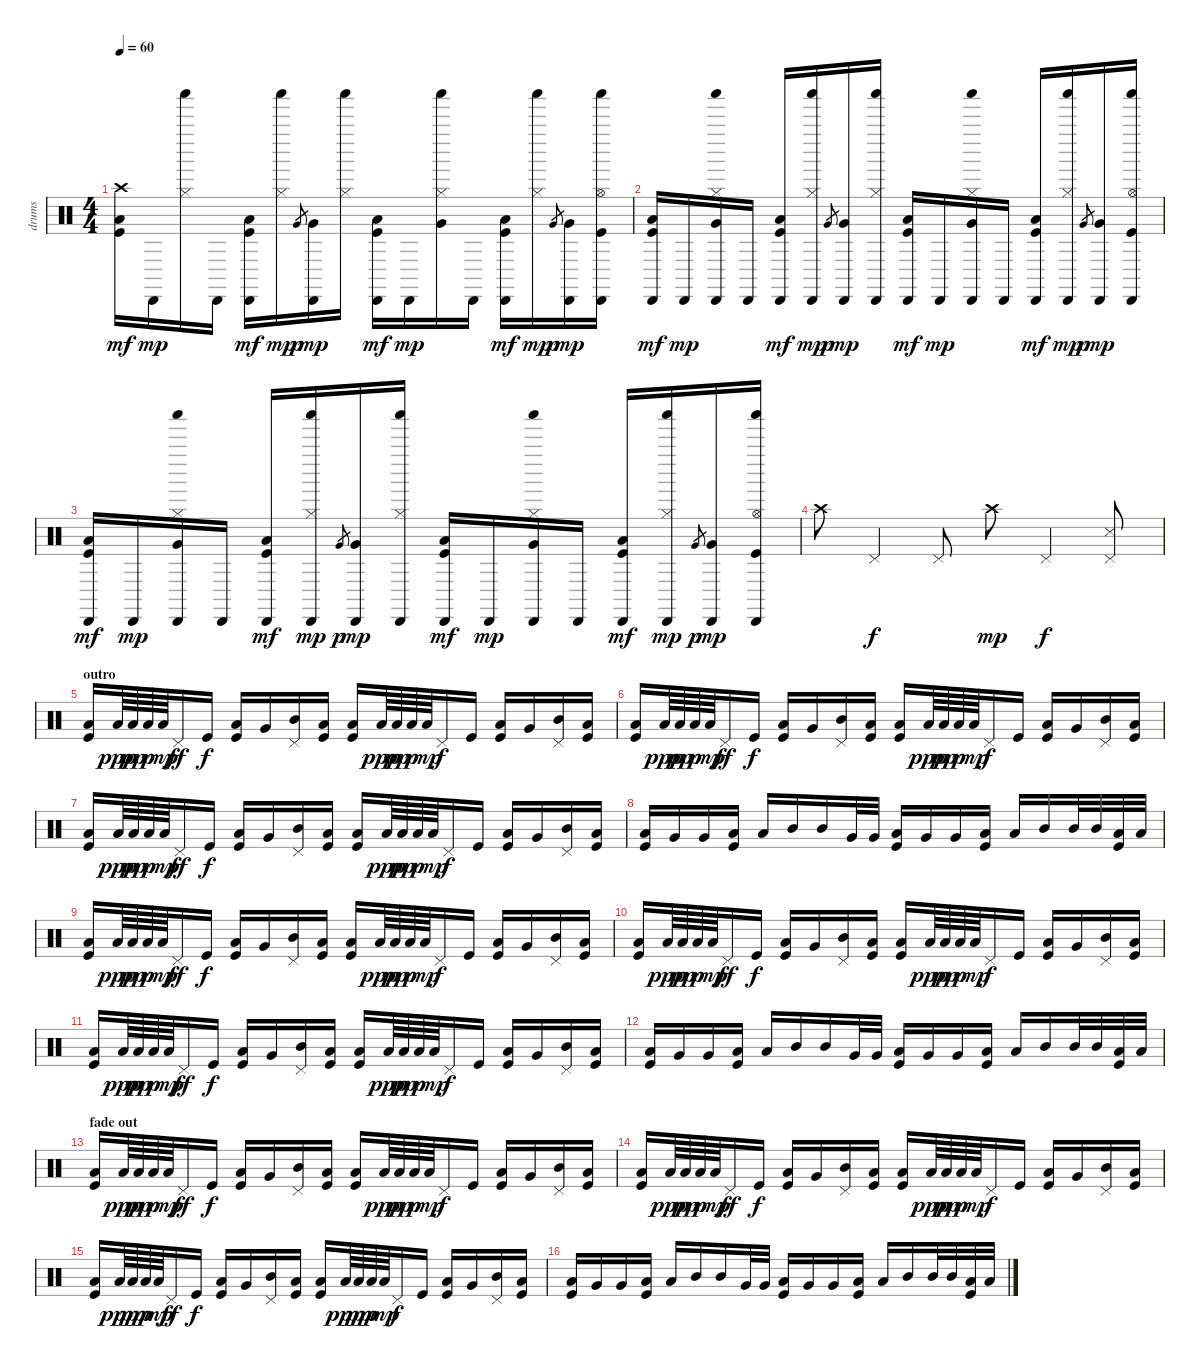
\track ("drums" "drums") {instrument percussion}
\staff {score}
\articulation defaults
\ts (4 4)
\tempo 60
\clef neutral
\ks c
("Crash high (hit)" "Low Floor Tom (hit)" "Kick (hit)").16{dy mf} "Cabasa (hit)".16{dy mp} ("Shaker (hit)" "Hi-Hat (closed)").16 "Cabasa (hit)".16 ("Cabasa (hit)" "Low Floor Tom (hit)" "Kick (hit)").16{dy mf} ("Shaker (hit)" "Hi-Hat (closed)").16{dy mp} "Very Low Tom (hit)".8{gr dy p} ("Cabasa (hit)" "Very Low Tom (hit)").16{dy mp} ("Shaker (hit)" "Hi-Hat (closed)").16 ("Cabasa (hit)" "Low Floor Tom (hit)" "Kick (hit)").16{dy mf} "Cabasa (hit)".16{dy mp} ("Shaker (hit)" "Very Low Tom (hit)" "Hi-Hat (closed)").16 "Cabasa (hit)".16 ("Cabasa (hit)" "Low Floor Tom (hit)" "Kick (hit)").16{dy mf} ("Shaker (hit)" "Hi-Hat (closed)").16{dy mp} "Very Low Tom (hit)".8{gr dy p} ("Cabasa (hit)" "Very Low Tom (hit)").16{dy mp} ("Cabasa (hit)" "Shaker (hit)" "Hi-Hat (open)" "Kick (hit)").16 |
("Cabasa (hit)" "Low Floor Tom (hit)" "Kick (hit)").16{dy mf} "Cabasa (hit)".16{dy mp} ("Cabasa (hit)" "Shaker (hit)" "Very Low Tom (hit)" "Hi-Hat (closed)").16 "Cabasa (hit)".16 ("Cabasa (hit)" "Low Floor Tom (hit)" "Kick (hit)").16{dy mf} ("Cabasa (hit)" "Shaker (hit)" "Hi-Hat (closed)").16{dy mp} "Very Low Tom (hit)".8{gr dy p} ("Cabasa (hit)" "Very Low Tom (hit)").16{dy mp} ("Cabasa (hit)" "Shaker (hit)" "Hi-Hat (closed)").16 ("Cabasa (hit)" "Low Floor Tom (hit)" "Kick (hit)").16{dy mf} "Cabasa (hit)".16{dy mp} ("Cabasa (hit)" "Shaker (hit)" "Very Low Tom (hit)" "Hi-Hat (closed)").16 "Cabasa (hit)".16 ("Cabasa (hit)" "Low Floor Tom (hit)" "Kick (hit)").16{dy mf} ("Cabasa (hit)" "Shaker (hit)" "Hi-Hat (closed)").16{dy mp} "Very Low Tom (hit)".8{gr dy p} ("Cabasa (hit)" "Very Low Tom (hit)").16{dy mp} ("Cabasa (hit)" "Shaker (hit)" "Hi-Hat (open)" "Kick (hit)").16 |
("Cabasa (hit)" "Low Floor Tom (hit)" "Kick (hit)").16{dy mf} "Cabasa (hit)".16{dy mp} ("Cabasa (hit)" "Shaker (hit)" "Very Low Tom (hit)" "Hi-Hat (closed)").16 "Cabasa (hit)".16 ("Cabasa (hit)" "Low Floor Tom (hit)" "Kick (hit)").16{dy mf} ("Cabasa (hit)" "Shaker (hit)" "Hi-Hat (closed)").16{dy mp} "Very Low Tom (hit)".8{gr dy p} ("Cabasa (hit)" "Very Low Tom (hit)").16{dy mp} ("Cabasa (hit)" "Shaker (hit)" "Hi-Hat (closed)").16 ("Cabasa (hit)" "Low Floor Tom (hit)" "Kick (hit)").16{dy mf} "Cabasa (hit)".16{dy mp} ("Cabasa (hit)" "Shaker (hit)" "Very Low Tom (hit)" "Hi-Hat (closed)").16 "Cabasa (hit)".16 ("Cabasa (hit)" "Low Floor Tom (hit)" "Kick (hit)").16{dy mf} ("Cabasa (hit)" "Shaker (hit)" "Hi-Hat (closed)").16{dy mp} "Very Low Tom (hit)".8{gr dy p} ("Cabasa (hit)" "Very Low Tom (hit)").16{dy mp} ("Cabasa (hit)" "Shaker (hit)" "Hi-Hat (open)" "Kick (hit)").16 |
"Crash high (hit)".8 "Pedal Hi-Hat (hit)".4{dy f} "Pedal Hi-Hat (hit)".8 "Crash high (hit)".8{dy mp} "Pedal Hi-Hat (hit)".4{dy f} ("Snare (side stick) 3" "Pedal Hi-Hat (hit)").8 |
\section ("" "outro")
("Low Floor Tom (hit)" "Kick (hit)").16 "Low Floor Tom (hit)".64{dy ppp} "Low Floor Tom (hit)".64{dy pp} "Low Floor Tom (hit)".64{dy p} "Low Floor Tom (hit)".64{dy mp} "Pedal Hi-Hat (hit)".16{dy ff} "Kick (hit)".16{dy f} ("Low Floor Tom (hit)" "Kick (hit)").16 "Very Low Tom (hit)".16 ("Mid Tom (hit)" "Pedal Hi-Hat (hit)").16 ("Low Floor Tom (hit)" "Kick (hit)").16 ("Low Floor Tom (hit)" "Kick (hit)").16 "Low Floor Tom (hit)".64{dy ppp} "Low Floor Tom (hit)".64{dy pp} "Low Floor Tom (hit)".64{dy p} "Low Floor Tom (hit)".64{dy mp} "Pedal Hi-Hat (hit)".16{dy f} "Kick (hit)".16 ("Low Floor Tom (hit)" "Kick (hit)").16 "Very Low Tom (hit)".16 ("Mid Tom (hit)" "Pedal Hi-Hat (hit)").16 ("Low Floor Tom (hit)" "Kick (hit)").16 |
("Low Floor Tom (hit)" "Kick (hit)").16 "Low Floor Tom (hit)".64{dy ppp} "Low Floor Tom (hit)".64{dy pp} "Low Floor Tom (hit)".64{dy p} "Low Floor Tom (hit)".64{dy mp} "Pedal Hi-Hat (hit)".16{dy ff} "Kick (hit)".16{dy f} ("Low Floor Tom (hit)" "Kick (hit)").16 "Very Low Tom (hit)".16 ("Mid Tom (hit)" "Pedal Hi-Hat (hit)").16 ("Low Floor Tom (hit)" "Kick (hit)").16 ("Low Floor Tom (hit)" "Kick (hit)").16 "Low Floor Tom (hit)".64{dy ppp} "Low Floor Tom (hit)".64{dy pp} "Low Floor Tom (hit)".64{dy p} "Low Floor Tom (hit)".64{dy mp} "Pedal Hi-Hat (hit)".16{dy f} "Kick (hit)".16 ("Low Floor Tom (hit)" "Kick (hit)").16 "Very Low Tom (hit)".16 ("Mid Tom (hit)" "Pedal Hi-Hat (hit)").16 ("Low Floor Tom (hit)" "Kick (hit)").16 |
("Low Floor Tom (hit)" "Kick (hit)").16 "Low Floor Tom (hit)".64{dy ppp} "Low Floor Tom (hit)".64{dy pp} "Low Floor Tom (hit)".64{dy p} "Low Floor Tom (hit)".64{dy mp} "Pedal Hi-Hat (hit)".16{dy ff} "Kick (hit)".16{dy f} ("Low Floor Tom (hit)" "Kick (hit)").16 "Very Low Tom (hit)".16 ("Mid Tom (hit)" "Pedal Hi-Hat (hit)").16 ("Low Floor Tom (hit)" "Kick (hit)").16 ("Low Floor Tom (hit)" "Kick (hit)").16 "Low Floor Tom (hit)".64{dy ppp} "Low Floor Tom (hit)".64{dy pp} "Low Floor Tom (hit)".64{dy p} "Low Floor Tom (hit)".64{dy mp} "Pedal Hi-Hat (hit)".16{dy f} "Kick (hit)".16 ("Low Floor Tom (hit)" "Kick (hit)").16 "Very Low Tom (hit)".16 ("Mid Tom (hit)" "Pedal Hi-Hat (hit)").16 ("Low Floor Tom (hit)" "Kick (hit)").16 |
("Low Floor Tom (hit)" "Kick (hit)").16 "Very Low Tom (hit)".16 "Very Low Tom (hit)".16 ("Low Floor Tom (hit)" "Kick (hit)").16 "Low Floor Tom (hit)".16 "Mid Tom (hit)".16 "Mid Tom (hit)".16 "Very Low Tom (hit)".32 "Very Low Tom (hit)".32 ("Low Floor Tom (hit)" "Kick (hit)").16 "Very Low Tom (hit)".16 "Very Low Tom (hit)".16 ("Low Floor Tom (hit)" "Kick (hit)").16 "Low Floor Tom (hit)".16 "Mid Tom (hit)".16 "Mid Tom (hit)".32 "Mid Tom (hit)".32 ("Low Floor Tom (hit)" "Kick (hit)").32 "Low Floor Tom (hit)".32 |
("Low Floor Tom (hit)" "Kick (hit)").16 "Low Floor Tom (hit)".64{dy ppp} "Low Floor Tom (hit)".64{dy pp} "Low Floor Tom (hit)".64{dy p} "Low Floor Tom (hit)".64{dy mp} "Pedal Hi-Hat (hit)".16{dy ff} "Kick (hit)".16{dy f} ("Low Floor Tom (hit)" "Kick (hit)").16 "Very Low Tom (hit)".16 ("Mid Tom (hit)" "Pedal Hi-Hat (hit)").16 ("Low Floor Tom (hit)" "Kick (hit)").16 ("Low Floor Tom (hit)" "Kick (hit)").16 "Low Floor Tom (hit)".64{dy ppp} "Low Floor Tom (hit)".64{dy pp} "Low Floor Tom (hit)".64{dy p} "Low Floor Tom (hit)".64{dy mp} "Pedal Hi-Hat (hit)".16{dy f} "Kick (hit)".16 ("Low Floor Tom (hit)" "Kick (hit)").16 "Very Low Tom (hit)".16 ("Mid Tom (hit)" "Pedal Hi-Hat (hit)").16 ("Low Floor Tom (hit)" "Kick (hit)").16 |
("Low Floor Tom (hit)" "Kick (hit)").16 "Low Floor Tom (hit)".64{dy ppp} "Low Floor Tom (hit)".64{dy pp} "Low Floor Tom (hit)".64{dy p} "Low Floor Tom (hit)".64{dy mp} "Pedal Hi-Hat (hit)".16{dy ff} "Kick (hit)".16{dy f} ("Low Floor Tom (hit)" "Kick (hit)").16 "Very Low Tom (hit)".16 ("Mid Tom (hit)" "Pedal Hi-Hat (hit)").16 ("Low Floor Tom (hit)" "Kick (hit)").16 ("Low Floor Tom (hit)" "Kick (hit)").16 "Low Floor Tom (hit)".64{dy ppp} "Low Floor Tom (hit)".64{dy pp} "Low Floor Tom (hit)".64{dy p} "Low Floor Tom (hit)".64{dy mp} "Pedal Hi-Hat (hit)".16{dy f} "Kick (hit)".16 ("Low Floor Tom (hit)" "Kick (hit)").16 "Very Low Tom (hit)".16 ("Mid Tom (hit)" "Pedal Hi-Hat (hit)").16 ("Low Floor Tom (hit)" "Kick (hit)").16 |
("Low Floor Tom (hit)" "Kick (hit)").16 "Low Floor Tom (hit)".64{dy ppp} "Low Floor Tom (hit)".64{dy pp} "Low Floor Tom (hit)".64{dy p} "Low Floor Tom (hit)".64{dy mp} "Pedal Hi-Hat (hit)".16{dy ff} "Kick (hit)".16{dy f} ("Low Floor Tom (hit)" "Kick (hit)").16 "Very Low Tom (hit)".16 ("Mid Tom (hit)" "Pedal Hi-Hat (hit)").16 ("Low Floor Tom (hit)" "Kick (hit)").16 ("Low Floor Tom (hit)" "Kick (hit)").16 "Low Floor Tom (hit)".64{dy ppp} "Low Floor Tom (hit)".64{dy pp} "Low Floor Tom (hit)".64{dy p} "Low Floor Tom (hit)".64{dy mp} "Pedal Hi-Hat (hit)".16{dy f} "Kick (hit)".16 ("Low Floor Tom (hit)" "Kick (hit)").16 "Very Low Tom (hit)".16 ("Mid Tom (hit)" "Pedal Hi-Hat (hit)").16 ("Low Floor Tom (hit)" "Kick (hit)").16 |
("Low Floor Tom (hit)" "Kick (hit)").16 "Very Low Tom (hit)".16 "Very Low Tom (hit)".16 ("Low Floor Tom (hit)" "Kick (hit)").16 "Low Floor Tom (hit)".16 "Mid Tom (hit)".16 "Mid Tom (hit)".16 "Very Low Tom (hit)".32 "Very Low Tom (hit)".32 ("Low Floor Tom (hit)" "Kick (hit)").16 "Very Low Tom (hit)".16 "Very Low Tom (hit)".16 ("Low Floor Tom (hit)" "Kick (hit)").16 "Low Floor Tom (hit)".16 "Mid Tom (hit)".16 "Mid Tom (hit)".32 "Mid Tom (hit)".32 ("Low Floor Tom (hit)" "Kick (hit)").32 "Low Floor Tom (hit)".32 |
\section ("" "fade out")
("Low Floor Tom (hit)" "Kick (hit)").16 "Low Floor Tom (hit)".64{dy ppp} "Low Floor Tom (hit)".64{dy pp} "Low Floor Tom (hit)".64{dy p} "Low Floor Tom (hit)".64{dy mp} "Pedal Hi-Hat (hit)".16{dy ff} "Kick (hit)".16{dy f} ("Low Floor Tom (hit)" "Kick (hit)").16 "Very Low Tom (hit)".16 ("Mid Tom (hit)" "Pedal Hi-Hat (hit)").16 ("Low Floor Tom (hit)" "Kick (hit)").16 ("Low Floor Tom (hit)" "Kick (hit)").16 "Low Floor Tom (hit)".64{dy ppp} "Low Floor Tom (hit)".64{dy pp} "Low Floor Tom (hit)".64{dy p} "Low Floor Tom (hit)".64{dy mp} "Pedal Hi-Hat (hit)".16{dy f} "Kick (hit)".16 ("Low Floor Tom (hit)" "Kick (hit)").16 "Very Low Tom (hit)".16 ("Mid Tom (hit)" "Pedal Hi-Hat (hit)").16 ("Low Floor Tom (hit)" "Kick (hit)").16 |
("Low Floor Tom (hit)" "Kick (hit)").16 "Low Floor Tom (hit)".64{dy ppp} "Low Floor Tom (hit)".64{dy pp} "Low Floor Tom (hit)".64{dy p} "Low Floor Tom (hit)".64{dy mp} "Pedal Hi-Hat (hit)".16{dy ff} "Kick (hit)".16{dy f} ("Low Floor Tom (hit)" "Kick (hit)").16 "Very Low Tom (hit)".16 ("Mid Tom (hit)" "Pedal Hi-Hat (hit)").16 ("Low Floor Tom (hit)" "Kick (hit)").16 ("Low Floor Tom (hit)" "Kick (hit)").16 "Low Floor Tom (hit)".64{dy ppp} "Low Floor Tom (hit)".64{dy pp} "Low Floor Tom (hit)".64{dy p} "Low Floor Tom (hit)".64{dy mp} "Pedal Hi-Hat (hit)".16{dy f} "Kick (hit)".16 ("Low Floor Tom (hit)" "Kick (hit)").16 "Very Low Tom (hit)".16 ("Mid Tom (hit)" "Pedal Hi-Hat (hit)").16 ("Low Floor Tom (hit)" "Kick (hit)").16 |
("Low Floor Tom (hit)" "Kick (hit)").16 "Low Floor Tom (hit)".64{dy ppp} "Low Floor Tom (hit)".64{dy pp} "Low Floor Tom (hit)".64{dy p} "Low Floor Tom (hit)".64{dy mp} "Pedal Hi-Hat (hit)".16{dy ff} "Kick (hit)".16{dy f} ("Low Floor Tom (hit)" "Kick (hit)").16 "Very Low Tom (hit)".16 ("Mid Tom (hit)" "Pedal Hi-Hat (hit)").16 ("Low Floor Tom (hit)" "Kick (hit)").16 ("Low Floor Tom (hit)" "Kick (hit)").16 "Low Floor Tom (hit)".64{dy ppp} "Low Floor Tom (hit)".64{dy pp} "Low Floor Tom (hit)".64{dy p} "Low Floor Tom (hit)".64{dy mp} "Pedal Hi-Hat (hit)".16{dy f} "Kick (hit)".16 ("Low Floor Tom (hit)" "Kick (hit)").16 "Very Low Tom (hit)".16 ("Mid Tom (hit)" "Pedal Hi-Hat (hit)").16 ("Low Floor Tom (hit)" "Kick (hit)").16 |
("Low Floor Tom (hit)" "Kick (hit)").16 "Very Low Tom (hit)".16 "Very Low Tom (hit)".16 ("Low Floor Tom (hit)" "Kick (hit)").16 "Low Floor Tom (hit)".16 "Mid Tom (hit)".16 "Mid Tom (hit)".16 "Very Low Tom (hit)".32 "Very Low Tom (hit)".32 ("Low Floor Tom (hit)" "Kick (hit)").16 "Very Low Tom (hit)".16 "Very Low Tom (hit)".16 ("Low Floor Tom (hit)" "Kick (hit)").16 "Low Floor Tom (hit)".16 "Mid Tom (hit)".16 "Mid Tom (hit)".32 "Mid Tom (hit)".32 ("Low Floor Tom (hit)" "Kick (hit)").32 "Low Floor Tom (hit)".32
